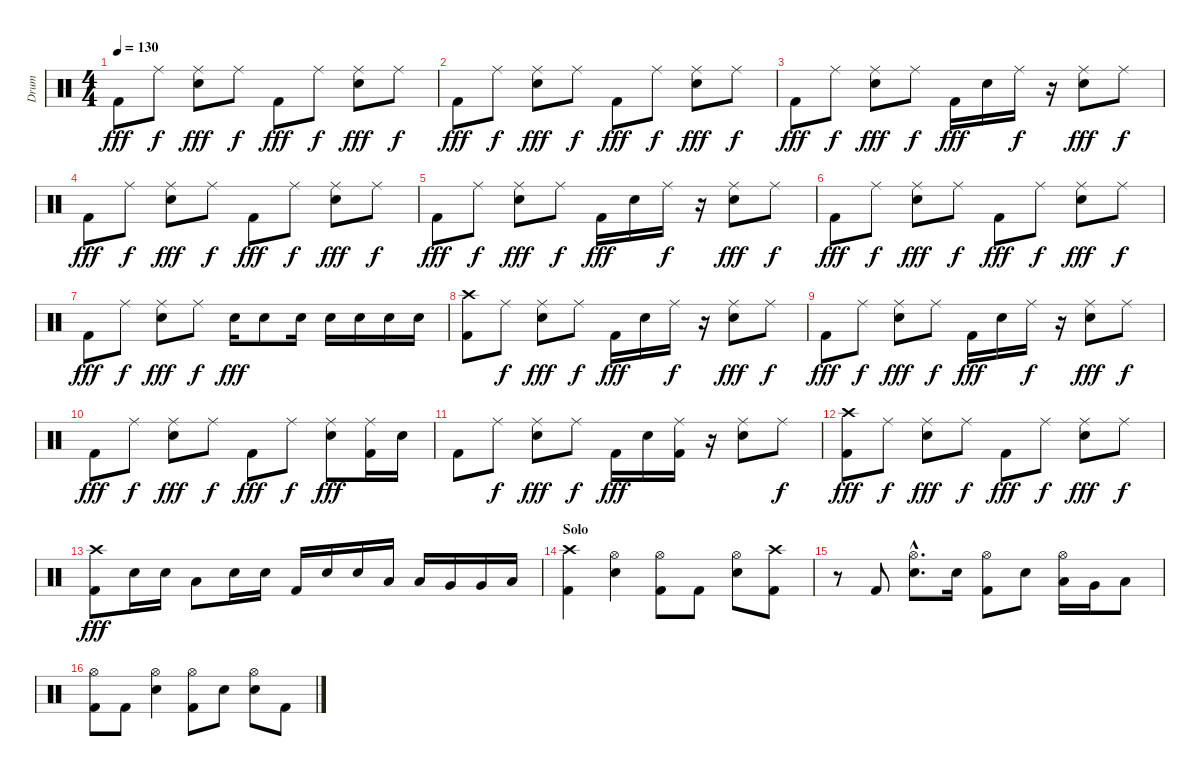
\track ("Drum" "Drum") {instrument percussion}
\staff {score}
\articulation defaults
\ts (4 4)
\tempo 130
\clef neutral
\ks c "Kick (hit) 2".8{dy fff} "Ride (middle)".8{dy f}
("Ride (middle)" "Electric Snare (hit)").8{dy fff} "Ride (middle)".8{dy f} "Kick (hit) 2".8{dy fff} "Ride (middle)".8{dy f} ("Ride (middle)" "Electric Snare (hit)").8{dy fff} "Ride (middle)".8{dy f} |
"Kick (hit) 2".8{dy fff} "Ride (middle)".8{dy f} ("Ride (middle)" "Electric Snare (hit)").8{dy fff} "Ride (middle)".8{dy f} "Kick (hit) 2".8{dy fff} "Ride (middle)".8{dy f} ("Ride (middle)" "Electric Snare (hit)").8{dy fff} "Ride (middle)".8{dy f} |
"Kick (hit) 2".8{dy fff} "Ride (middle)".8{dy f} ("Ride (middle)" "Electric Snare (hit)").8{dy fff} "Ride (middle)".8{dy f} "Kick (hit) 2".16{dy fff} "Electric Snare (hit)".16 "Ride (middle)".16{dy f} r.16 ("Ride (middle)" "Electric Snare (hit)").8{dy fff} "Ride (middle)".8{dy f} |
"Kick (hit) 2".8{dy fff} "Ride (middle)".8{dy f} ("Ride (middle)" "Electric Snare (hit)").8{dy fff} "Ride (middle)".8{dy f} "Kick (hit) 2".8{dy fff} "Ride (middle)".8{dy f} ("Ride (middle)" "Electric Snare (hit)").8{dy fff} "Ride (middle)".8{dy f} |
"Kick (hit) 2".8{dy fff} "Ride (middle)".8{dy f} ("Ride (middle)" "Electric Snare (hit)").8{dy fff} "Ride (middle)".8{dy f} "Kick (hit) 2".16{dy fff} "Electric Snare (hit)".16 "Ride (middle)".16{dy f} r.16 ("Ride (middle)" "Electric Snare (hit)").8{dy fff} "Ride (middle)".8{dy f} |
"Kick (hit) 2".8{dy fff} "Ride (middle)".8{dy f} ("Ride (middle)" "Electric Snare (hit)").8{dy fff} "Ride (middle)".8{dy f} "Kick (hit) 2".8{dy fff} "Ride (middle)".8{dy f} ("Ride (middle)" "Electric Snare (hit)").8{dy fff} "Ride (middle)".8{dy f} |
"Kick (hit) 2".8{dy fff} "Ride (middle)".8{dy f} ("Ride (middle)" "Electric Snare (hit)").8{dy fff} "Ride (middle)".8{dy f} "Electric Snare (hit)".16{dy fff} "Electric Snare (hit)".8 "Electric Snare (hit)".16 "Electric Snare (hit)".16 "Electric Snare (hit)".16 "Electric Snare (hit)".16 "Electric Snare (hit)".16 |
("Crash high (hit)" "Kick (hit) 2").8 "Ride (middle)".8{dy f} ("Ride (middle)" "Electric Snare (hit)").8{dy fff} "Ride (middle)".8{dy f} "Kick (hit) 2".16{dy fff} "Electric Snare (hit)".16 "Ride (middle)".16{dy f} r.16 ("Ride (middle)" "Electric Snare (hit)").8{dy fff} "Ride (middle)".8{dy f} |
"Kick (hit) 2".8{dy fff} "Ride (middle)".8{dy f} ("Ride (middle)" "Electric Snare (hit)").8{dy fff} "Ride (middle)".8{dy f} "Kick (hit) 2".16{dy fff} "Electric Snare (hit)".16 "Ride (middle)".16{dy f} r.16 ("Ride (middle)" "Electric Snare (hit)").8{dy fff} "Ride (middle)".8{dy f} |
"Kick (hit) 2".8{dy fff} "Ride (middle)".8{dy f} ("Ride (middle)" "Electric Snare (hit)").8{dy fff} "Ride (middle)".8{dy f} "Kick (hit) 2".8{dy fff} "Ride (middle)".8{dy f} ("Ride (middle)" "Electric Snare (hit)").8{dy fff} ("Ride (middle)" "Kick (hit) 2").16 "Electric Snare (hit)".16 |
"Kick (hit) 2".8 "Ride (middle)".8{dy f} ("Ride (middle)" "Electric Snare (hit)").8{dy fff} "Ride (middle)".8{dy f} "Kick (hit) 2".16{dy fff} "Electric Snare (hit)".16 ("Ride (middle)" "Kick (hit) 2").16 r.16 ("Ride (middle)" "Electric Snare (hit)").8 "Ride (middle)".8{dy f} |
("Crash high (hit)" "Kick (hit) 2").8{dy fff} "Ride (middle)".8{dy f} ("Ride (middle)" "Electric Snare (hit)").8{dy fff} "Ride (middle)".8{dy f} "Kick (hit) 2".8{dy fff} "Ride (middle)".8{dy f} ("Ride (middle)" "Electric Snare (hit)").8{dy fff} "Ride (middle)".8{dy f} |
("Crash high (hit)" "Kick (hit) 2").8{dy fff} "Electric Snare (hit)".16 "Electric Snare (hit)".16 "Low Floor Tom (hit)".8 "Electric Snare (hit)".16 "Electric Snare (hit)".16 "Kick (hit) 2".16 "Electric Snare (hit)".16 "Electric Snare (hit)".16 "Low Tom (hit)".16 "Low Tom (hit)".16 "Very Low Tom (hit)".16 "Very Low Tom (hit)".16 "Low Floor Tom (hit)".16 |
\section ("" "Solo")
("Crash high (hit)" "Kick (hit) 2").4 ("Hi-Hat (open)" "Electric Snare (hit)").4 ("Hi-Hat (open)" "Kick (hit) 2").8 "Kick (hit) 2".8 ("Hi-Hat (open)" "Electric Snare (hit)").8 ("Crash high (hit)" "Kick (hit) 2").8 |
r.8 "Kick (hit) 2".8 ("Hi-Hat (open)"{hac} "Electric Snare (hit)"{hac}).8{d} "Electric Snare (hit)".16 ("Hi-Hat (open)" "Kick (hit) 2").8 "Electric Snare (hit)".8 ("Hi-Hat (open)" "Low Tom (hit)").16 "Very Low Tom (hit)".16 "Low Floor Tom (hit)".8 |
("Hi-Hat (open)" "Kick (hit) 2").8 "Kick (hit) 2".8 ("Hi-Hat (open)" "Electric Snare (hit)").4 ("Hi-Hat (open)" "Kick (hit) 2").8 "Electric Snare (hit)".8 ("Hi-Hat (open)" "Electric Snare (hit)").8 "Kick (hit) 2".8
